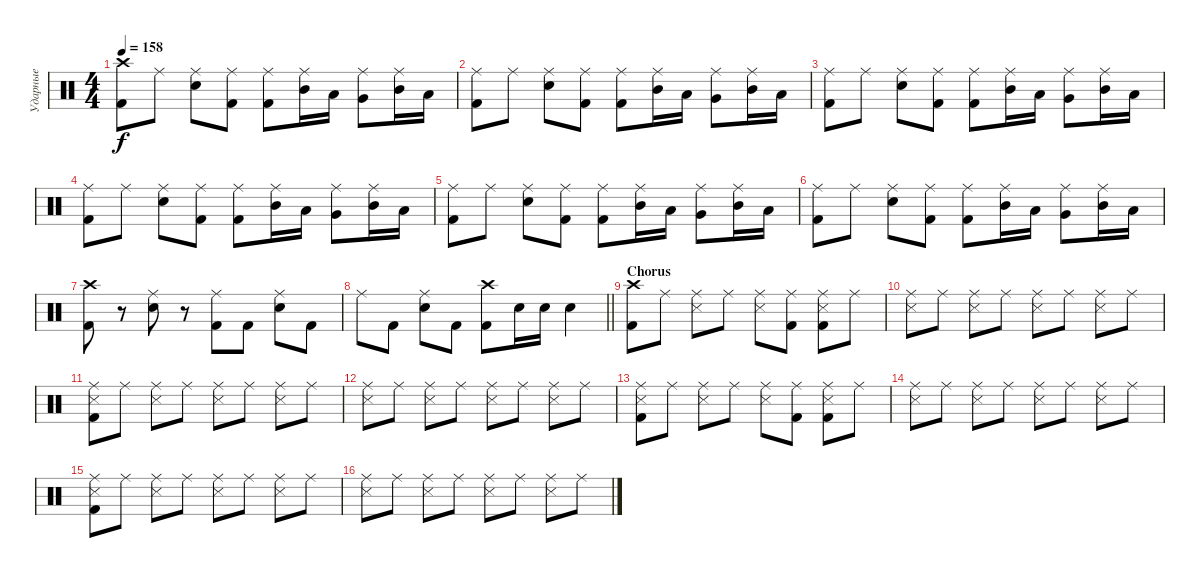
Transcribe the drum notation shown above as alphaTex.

\track ("Ударные" "Ударные") {instrument percussion}
\staff {score}
\articulation defaults
\ts (4 4)
\tempo 158
\clef neutral
\ks c
("Crash high (hit)" "Kick (hit) 2").8{dy f} "Ride (middle)".8 ("Ride (middle)" "Electric Snare (hit)").8 ("Ride (middle)" "Kick (hit) 2").8 ("Ride (middle)" "Kick (hit) 2").8 ("Ride (middle)" "Mid Tom (hit)").16 "Low Tom (hit)".16 ("Ride (middle)" "Very Low Tom (hit)").8 ("Ride (middle)" "Mid Tom (hit)").16 "Low Tom (hit)".16 |
("Ride (middle)" "Kick (hit) 2").8 "Ride (middle)".8 ("Ride (middle)" "Electric Snare (hit)").8 ("Ride (middle)" "Kick (hit) 2").8 ("Ride (middle)" "Kick (hit) 2").8 ("Ride (middle)" "Mid Tom (hit)").16 "Low Tom (hit)".16 ("Ride (middle)" "Very Low Tom (hit)").8 ("Ride (middle)" "Mid Tom (hit)").16 "Low Tom (hit)".16 |
("Ride (middle)" "Kick (hit) 2").8 "Ride (middle)".8 ("Ride (middle)" "Electric Snare (hit)").8 ("Ride (middle)" "Kick (hit) 2").8 ("Ride (middle)" "Kick (hit) 2").8 ("Ride (middle)" "Mid Tom (hit)").16 "Low Tom (hit)".16 ("Ride (middle)" "Very Low Tom (hit)").8 ("Ride (middle)" "Mid Tom (hit)").16 "Low Tom (hit)".16 |
("Ride (middle)" "Kick (hit) 2").8 "Ride (middle)".8 ("Ride (middle)" "Electric Snare (hit)").8 ("Ride (middle)" "Kick (hit) 2").8 ("Ride (middle)" "Kick (hit) 2").8 ("Ride (middle)" "Mid Tom (hit)").16 "Low Tom (hit)".16 ("Ride (middle)" "Very Low Tom (hit)").8 ("Ride (middle)" "Mid Tom (hit)").16 "Low Tom (hit)".16 |
("Ride (middle)" "Kick (hit) 2").8 "Ride (middle)".8 ("Ride (middle)" "Electric Snare (hit)").8 ("Ride (middle)" "Kick (hit) 2").8 ("Ride (middle)" "Kick (hit) 2").8 ("Ride (middle)" "Mid Tom (hit)").16 "Low Tom (hit)".16 ("Ride (middle)" "Very Low Tom (hit)").8 ("Ride (middle)" "Mid Tom (hit)").16 "Low Tom (hit)".16 |
("Ride (middle)" "Kick (hit) 2").8 "Ride (middle)".8 ("Ride (middle)" "Electric Snare (hit)").8 ("Ride (middle)" "Kick (hit) 2").8 ("Ride (middle)" "Kick (hit) 2").8 ("Ride (middle)" "Mid Tom (hit)").16 "Low Tom (hit)".16 ("Ride (middle)" "Very Low Tom (hit)").8 ("Ride (middle)" "Mid Tom (hit)").16 "Low Tom (hit)".16 |
("Crash high (hit)" "Kick (hit) 2").8 r.8 ("Ride (middle)" "Electric Snare (hit)").8 r.8 ("Ride (middle)" "Kick (hit) 2").8 "Kick (hit) 2".8 ("Ride (middle)" "Electric Snare (hit)").8 "Kick (hit) 2".8 |
\barLineRight lightlight "Ride (middle)".8 "Kick (hit) 2".8
("Ride (middle)" "Electric Snare (hit)").8 "Kick (hit) 2".8 ("Crash high (hit)" "Kick (hit) 2").8 "Electric Snare (hit)".16 "Electric Snare (hit)".16 "Electric Snare (hit)".4 |
\section ("" "Сhorus")
("Crash high (hit)" "Kick (hit) 2").8 "Ride (middle)".8 ("Ride (middle)" "Snare (side stick) 3").8 "Ride (middle)".8 ("Ride (middle)" "Snare (side stick) 3").8 ("Ride (middle)" "Kick (hit) 2").8 ("Ride (middle)" "Snare (side stick) 3" "Kick (hit) 2").8 "Ride (middle)".8 |
("Ride (middle)" "Snare (side stick) 3").8 "Ride (middle)".8 ("Ride (middle)" "Snare (side stick) 3").8 "Ride (middle)".8 ("Ride (middle)" "Snare (side stick) 3").8 "Ride (middle)".8 ("Ride (middle)" "Snare (side stick) 3").8 "Ride (middle)".8 |
("Ride (middle)" "Snare (side stick) 3" "Kick (hit) 2").8 "Ride (middle)".8 ("Ride (middle)" "Snare (side stick) 3").8 "Ride (middle)".8 ("Ride (middle)" "Snare (side stick) 3").8 "Ride (middle)".8 ("Ride (middle)" "Snare (side stick) 3").8 "Ride (middle)".8 |
("Ride (middle)" "Snare (side stick) 3").8 "Ride (middle)".8 ("Ride (middle)" "Snare (side stick) 3").8 "Ride (middle)".8 ("Ride (middle)" "Snare (side stick) 3").8 "Ride (middle)".8 ("Ride (middle)" "Snare (side stick) 3").8 "Ride (middle)".8 |
("Ride (middle)" "Snare (side stick) 3" "Kick (hit) 2").8 "Ride (middle)".8 ("Ride (middle)" "Snare (side stick) 3").8 "Ride (middle)".8 ("Ride (middle)" "Snare (side stick) 3").8 ("Ride (middle)" "Kick (hit) 2").8 ("Ride (middle)" "Snare (side stick) 3" "Kick (hit) 2").8 "Ride (middle)".8 |
("Ride (middle)" "Snare (side stick) 3").8 "Ride (middle)".8 ("Ride (middle)" "Snare (side stick) 3").8 "Ride (middle)".8 ("Ride (middle)" "Snare (side stick) 3").8 "Ride (middle)".8 ("Ride (middle)" "Snare (side stick) 3").8 "Ride (middle)".8 |
("Ride (middle)" "Snare (side stick) 3" "Kick (hit) 2").8 "Ride (middle)".8 ("Ride (middle)" "Snare (side stick) 3").8 "Ride (middle)".8 ("Ride (middle)" "Snare (side stick) 3").8 "Ride (middle)".8 ("Ride (middle)" "Snare (side stick) 3").8 "Ride (middle)".8 |
("Ride (middle)" "Snare (side stick) 3").8 "Ride (middle)".8 ("Ride (middle)" "Snare (side stick) 3").8 "Ride (middle)".8 ("Ride (middle)" "Snare (side stick) 3").8 "Ride (middle)".8 ("Ride (middle)" "Snare (side stick) 3").8 "Ride (middle)".8
